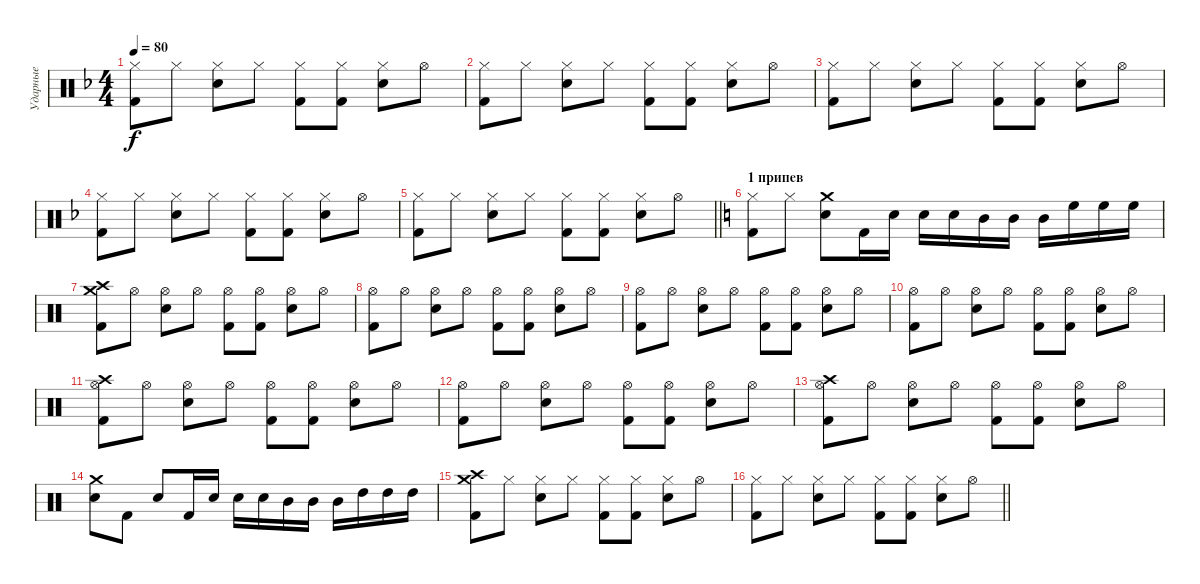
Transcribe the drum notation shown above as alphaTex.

\track ("Ударные" "Ударные") {instrument percussion}
\staff {score}
\articulation defaults
\ts (4 4)
\tempo 80
\clef neutral
\ks f
("Hi-Hat (closed)" "Kick (hit) 2").8{dy f} "Hi-Hat (closed)".8 ("Hi-Hat (closed)" "Snare (hit) 2").8 "Hi-Hat (closed)".8 ("Hi-Hat (closed)" "Kick (hit) 2").8 ("Hi-Hat (closed)" "Kick (hit) 2").8 ("Hi-Hat (closed)" "Snare (hit) 2").8 "Hi-Hat (open)".8 |
("Hi-Hat (closed)" "Kick (hit) 2").8 "Hi-Hat (closed)".8 ("Hi-Hat (closed)" "Snare (hit) 2").8 "Hi-Hat (closed)".8 ("Hi-Hat (closed)" "Kick (hit) 2").8 ("Hi-Hat (closed)" "Kick (hit) 2").8 ("Hi-Hat (closed)" "Snare (hit) 2").8 "Hi-Hat (open)".8 |
("Hi-Hat (closed)" "Kick (hit) 2").8 "Hi-Hat (closed)".8 ("Hi-Hat (closed)" "Snare (hit) 2").8 "Hi-Hat (closed)".8 ("Hi-Hat (closed)" "Kick (hit) 2").8 ("Hi-Hat (closed)" "Kick (hit) 2").8 ("Hi-Hat (closed)" "Snare (hit) 2").8 "Hi-Hat (open)".8 |
("Hi-Hat (closed)" "Kick (hit) 2").8 "Hi-Hat (closed)".8 ("Hi-Hat (closed)" "Snare (hit) 2").8 "Hi-Hat (closed)".8 ("Hi-Hat (closed)" "Kick (hit) 2").8 ("Hi-Hat (closed)" "Kick (hit) 2").8 ("Hi-Hat (closed)" "Snare (hit) 2").8 "Hi-Hat (open)".8 |
\barLineRight lightlight
("Hi-Hat (closed)" "Kick (hit) 2").8 "Hi-Hat (closed)".8 ("Hi-Hat (closed)" "Snare (hit) 2").8 "Hi-Hat (closed)".8 ("Hi-Hat (closed)" "Kick (hit) 2").8 ("Hi-Hat (closed)" "Kick (hit) 2").8 ("Hi-Hat (closed)" "Snare (hit) 2").8 "Hi-Hat (open)".8 |
\section ("" "1 припев")
\ks c
("Hi-Hat (closed)" "Kick (hit) 2").8 "Hi-Hat (closed)".8 ("Crash medium (hit)" "Snare (hit) 2").8 "Kick (hit) 2".16 "Snare (hit) 2".16 "Snare (hit) 2".16 "Snare (hit) 2".16 "Mid Tom (hit)".16 "Mid Tom (hit)".16 "Mid Tom (hit)".16 "High Floor Tom (hit)".16 "High Floor Tom (hit)".16 "High Floor Tom (hit)".16 |
("Crash high (hit)" "Crash medium (hit)" "Kick (hit) 2").8 "Hi-Hat (open)".8 ("Hi-Hat (open)" "Snare (hit) 2").8 "Hi-Hat (open)".8 ("Hi-Hat (open)" "Kick (hit) 2").8 ("Hi-Hat (open)" "Kick (hit) 2").8 ("Hi-Hat (open)" "Snare (hit) 2").8 "Hi-Hat (open)".8 |
("Hi-Hat (open)" "Kick (hit) 2").8 "Hi-Hat (open)".8 ("Hi-Hat (open)" "Snare (hit) 2").8 "Hi-Hat (open)".8 ("Hi-Hat (open)" "Kick (hit) 2").8 ("Hi-Hat (open)" "Kick (hit) 2").8 ("Hi-Hat (open)" "Snare (hit) 2").8 "Hi-Hat (open)".8 |
("Hi-Hat (open)" "Kick (hit) 2").8 "Hi-Hat (open)".8 ("Hi-Hat (open)" "Snare (hit) 2").8 "Hi-Hat (open)".8 ("Hi-Hat (open)" "Kick (hit) 2").8 ("Hi-Hat (open)" "Kick (hit) 2").8 ("Hi-Hat (open)" "Snare (hit) 2").8 "Hi-Hat (open)".8 |
("Hi-Hat (open)" "Kick (hit) 2").8 "Hi-Hat (open)".8 ("Hi-Hat (open)" "Snare (hit) 2").8 "Hi-Hat (open)".8 ("Hi-Hat (open)" "Kick (hit) 2").8 ("Hi-Hat (open)" "Kick (hit) 2").8 ("Hi-Hat (open)" "Snare (hit) 2").8 "Hi-Hat (open)".8 |
("Hi-Hat (open)" "Crash high (hit)" "Kick (hit) 2").8 "Hi-Hat (open)".8 ("Hi-Hat (open)" "Snare (hit) 2").8 "Hi-Hat (open)".8 ("Hi-Hat (open)" "Kick (hit) 2").8 ("Hi-Hat (open)" "Kick (hit) 2").8 ("Hi-Hat (open)" "Snare (hit) 2").8 "Hi-Hat (open)".8 |
("Hi-Hat (open)" "Kick (hit) 2").8 "Hi-Hat (open)".8 ("Hi-Hat (open)" "Snare (hit) 2").8 "Hi-Hat (open)".8 ("Hi-Hat (open)" "Kick (hit) 2").8 ("Hi-Hat (open)" "Kick (hit) 2").8 ("Hi-Hat (open)" "Snare (hit) 2").8 "Hi-Hat (open)".8 |
("Hi-Hat (open)" "Crash high (hit)" "Kick (hit) 2").8 "Hi-Hat (open)".8 ("Hi-Hat (open)" "Snare (hit) 2").8 "Hi-Hat (open)".8 ("Hi-Hat (open)" "Kick (hit) 2").8 ("Hi-Hat (open)" "Kick (hit) 2").8 ("Hi-Hat (open)" "Snare (hit) 2").8 "Hi-Hat (open)".8 |
("Crash medium (hit)" "Snare (hit) 2").8 "Kick (hit) 2".8 "Snare (hit) 2".8 "Kick (hit) 2".16 "Snare (hit) 2".16 "Snare (hit) 2".16 "Snare (hit) 2".16 "Mid Tom (hit)".16 "Mid Tom (hit)".16 "Mid Tom (hit)".16 "High Tom (hit)".16 "High Tom (hit)".16 "High Tom (hit)".16 |
("Crash high (hit)" "Crash medium (hit)" "Kick (hit) 2").8 "Hi-Hat (closed)".8 ("Hi-Hat (closed)" "Snare (hit) 2").8 "Hi-Hat (closed)".8 ("Hi-Hat (closed)" "Kick (hit) 2").8 ("Hi-Hat (closed)" "Kick (hit) 2").8 ("Hi-Hat (closed)" "Snare (hit) 2").8 "Hi-Hat (open)".8 |
\barLineRight lightlight
("Hi-Hat (closed)" "Kick (hit) 2").8 "Hi-Hat (closed)".8 ("Hi-Hat (closed)" "Snare (hit) 2").8 "Hi-Hat (closed)".8 ("Hi-Hat (closed)" "Kick (hit) 2").8 ("Hi-Hat (closed)" "Kick (hit) 2").8 ("Hi-Hat (closed)" "Snare (hit) 2").8 "Hi-Hat (open)".8
